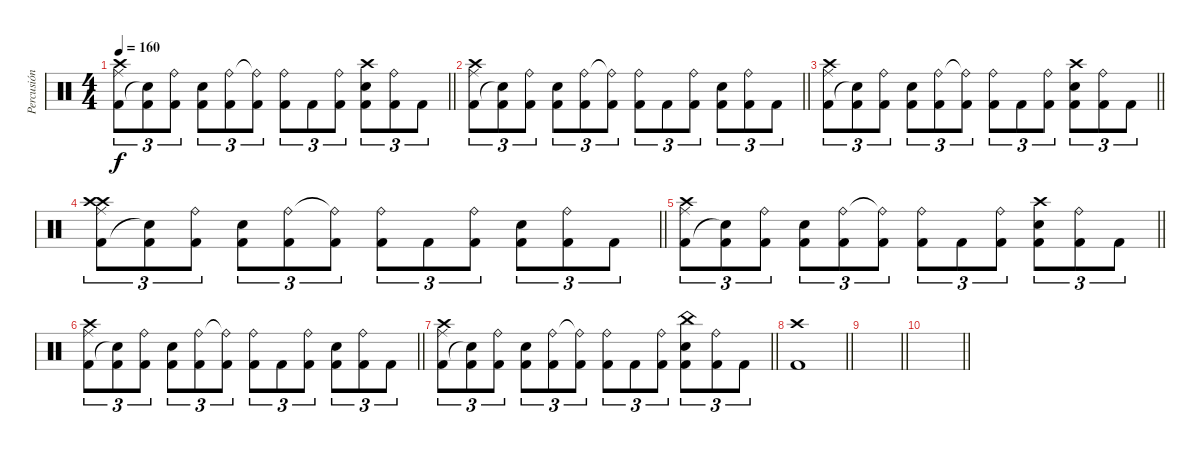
\track ("Percusión" "Percusión") {instrument percussion}
\staff {score}
\articulation defaults
\ts (4 4)
\tempo 160
\clef neutral
\barLineRight lightlight
\ks c
("Ride (middle)" "Kick (hit) 2" "Crash high (hit)").8{tu (3 2) dy f} ("Kick (hit) 2" "Snare (hit)"{t}).8{tu (3 2)} ("Ride (bell)" "Kick (hit) 2").8{tu (3 2)} ("Snare (hit) 2" "Kick (hit) 2").8{tu (3 2)} ("Ride (bell)" "Kick (hit) 2").8{tu (3 2)} ("Ride (bell)"{t} "Kick (hit) 2").8{tu (3 2)} ("Kick (hit) 2" "Ride (bell)").8{tu (3 2)} "Kick (hit) 2".8{tu (3 2)} ("Ride (bell)" "Kick (hit) 2").8{tu (3 2)} ("Crash high (hit)" "Kick (hit) 2" "Snare (hit) 2").8{tu (3 2)} ("Kick (hit) 2" "Ride (bell)").8{tu (3 2)} "Kick (hit) 2".8{tu (3 2)} |
\barLineRight lightlight
("Ride (middle)" "Kick (hit) 2" "Crash high (hit)").8{tu (3 2)} ("Kick (hit) 2" "Snare (hit)"{t}).8{tu (3 2)} ("Ride (bell)" "Kick (hit) 2").8{tu (3 2)} ("Snare (hit) 2" "Kick (hit) 2").8{tu (3 2)} ("Ride (bell)" "Kick (hit) 2").8{tu (3 2)} ("Ride (bell)"{t} "Kick (hit) 2").8{tu (3 2)} ("Kick (hit) 2" "Ride (bell)").8{tu (3 2)} "Kick (hit) 2".8{tu (3 2)} ("Ride (bell)" "Kick (hit) 2").8{tu (3 2)} ("Kick (hit) 2" "Snare (hit) 2").8{tu (3 2)} ("Kick (hit) 2" "Ride (bell)").8{tu (3 2)} "Kick (hit) 2".8{tu (3 2)} |
\barLineRight lightlight
("Ride (middle)" "Kick (hit) 2" "Crash high (hit)").8{tu (3 2)} ("Kick (hit) 2" "Snare (hit)"{t}).8{tu (3 2)} ("Ride (bell)" "Kick (hit) 2").8{tu (3 2)} ("Snare (hit) 2" "Kick (hit) 2").8{tu (3 2)} ("Ride (bell)" "Kick (hit) 2").8{tu (3 2)} ("Ride (bell)"{t} "Kick (hit) 2").8{tu (3 2)} ("Kick (hit) 2" "Ride (bell)").8{tu (3 2)} "Kick (hit) 2".8{tu (3 2)} ("Ride (bell)" "Kick (hit) 2").8{tu (3 2)} ("Crash high (hit)" "Kick (hit) 2" "Snare (hit) 2").8{tu (3 2)} ("Kick (hit) 2" "Ride (bell)").8{tu (3 2)} "Kick (hit) 2".8{tu (3 2)} |
\barLineRight lightlight
("Ride (middle)" "Kick (hit) 2" "Crash high (hit)" "Crash high (hit)").8{tu (3 2)} ("Kick (hit) 2" "Snare (hit)"{t}).8{tu (3 2)} ("Ride (bell)" "Kick (hit) 2").8{tu (3 2)} ("Snare (hit) 2" "Kick (hit) 2").8{tu (3 2)} ("Ride (bell)" "Kick (hit) 2").8{tu (3 2)} ("Ride (bell)"{t} "Kick (hit) 2").8{tu (3 2)} ("Kick (hit) 2" "Ride (bell)").8{tu (3 2)} "Kick (hit) 2".8{tu (3 2)} ("Ride (bell)" "Kick (hit) 2").8{tu (3 2)} ("Kick (hit) 2" "Snare (hit) 2").8{tu (3 2)} ("Kick (hit) 2" "Ride (bell)").8{tu (3 2)} "Kick (hit) 2".8{tu (3 2)} |
\barLineRight lightlight
("Ride (middle)" "Kick (hit) 2" "Crash high (hit)").8{tu (3 2)} ("Kick (hit) 2" "Snare (hit)"{t}).8{tu (3 2)} ("Ride (bell)" "Kick (hit) 2").8{tu (3 2)} ("Snare (hit) 2" "Kick (hit) 2").8{tu (3 2)} ("Ride (bell)" "Kick (hit) 2").8{tu (3 2)} ("Ride (bell)"{t} "Kick (hit) 2").8{tu (3 2)} ("Kick (hit) 2" "Ride (bell)").8{tu (3 2)} "Kick (hit) 2".8{tu (3 2)} ("Ride (bell)" "Kick (hit) 2").8{tu (3 2)} ("Crash high (hit)" "Kick (hit) 2" "Snare (hit) 2").8{tu (3 2)} ("Kick (hit) 2" "Ride (bell)").8{tu (3 2)} "Kick (hit) 2".8{tu (3 2)} |
\barLineRight lightlight
("Ride (middle)" "Kick (hit) 2" "Crash high (hit)").8{tu (3 2)} ("Kick (hit) 2" "Snare (hit)"{t}).8{tu (3 2)} ("Ride (bell)" "Kick (hit) 2").8{tu (3 2)} ("Snare (hit) 2" "Kick (hit) 2").8{tu (3 2)} ("Ride (bell)" "Kick (hit) 2").8{tu (3 2)} ("Ride (bell)"{t} "Kick (hit) 2").8{tu (3 2)} ("Kick (hit) 2" "Ride (bell)").8{tu (3 2)} "Kick (hit) 2".8{tu (3 2)} ("Ride (bell)" "Kick (hit) 2").8{tu (3 2)} ("Kick (hit) 2" "Snare (hit) 2").8{tu (3 2)} ("Kick (hit) 2" "Ride (bell)").8{tu (3 2)} "Kick (hit) 2".8{tu (3 2)} |
\barLineRight lightlight
("Ride (middle)" "Kick (hit) 2" "Crash high (hit)").8{tu (3 2)} ("Kick (hit) 2" "Snare (hit)"{t}).8{tu (3 2)} ("Ride (bell)" "Kick (hit) 2").8{tu (3 2)} ("Snare (hit) 2" "Kick (hit) 2").8{tu (3 2)} ("Ride (bell)" "Kick (hit) 2").8{tu (3 2)} ("Ride (bell)"{t} "Kick (hit) 2").8{tu (3 2)} ("Kick (hit) 2" "Ride (bell)").8{tu (3 2)} "Kick (hit) 2".8{tu (3 2)} ("Ride (bell)" "Kick (hit) 2").8{tu (3 2)} ("China (hit)" "Kick (hit) 2" "Snare (hit) 2").8{tu (3 2)} ("Kick (hit) 2" "Ride (bell)").8{tu (3 2)} "Kick (hit) 2".8{tu (3 2)} |
\barLineRight lightlight
("Kick (hit) 2" "Crash high (hit)").1 |
\barLineRight lightlight
|
\barLineRight lightlight
